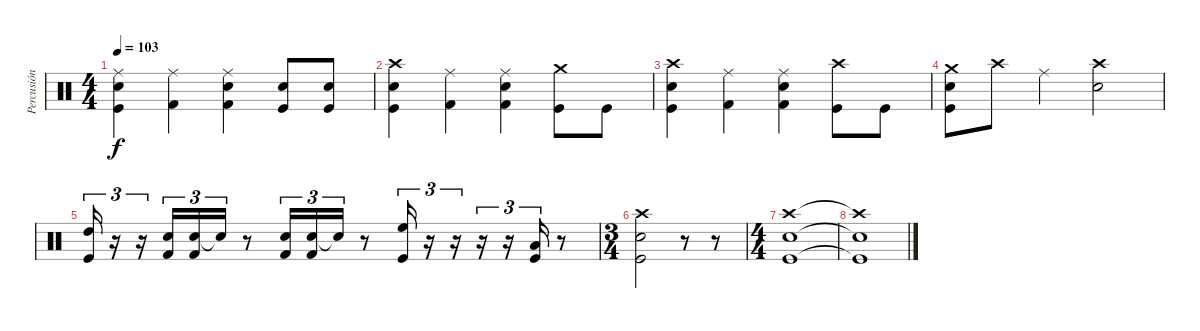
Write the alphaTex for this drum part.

\track ("Percusión" "Percusión") {instrument percussion}
\staff {score}
\articulation defaults
\ts (4 4)
\tempo 103
\clef neutral
\ks c
("Ride (middle)" "Kick (hit)" "Snare (hit) 2").4{dy f} ("Ride (middle)" "Kick (hit) 2").4 ("Ride (middle)" "Snare (hit) 2" "Kick (hit) 2").4 ("Snare (hit) 2" "Kick (hit)").8 ("Snare (hit) 2" "Kick (hit)").8 |
("Crash high (hit)" "Kick (hit)" "Snare (hit) 2").4 ("Ride (middle)" "Kick (hit) 2").4 ("Ride (middle)" "Snare (hit) 2" "Kick (hit) 2").4 ("Crash medium (hit)" "Kick (hit)").8 "Kick (hit)".8 |
("Crash high (hit)" "Snare (hit) 2" "Kick (hit)").4 ("Ride (middle)" "Kick (hit) 2").4 ("Ride (middle)" "Snare (hit) 2" "Kick (hit) 2").4 ("Crash high (hit)" "Kick (hit)").8 "Kick (hit)".8 |
("Crash medium (hit)" "Kick (hit)" "Snare (hit) 2").8 "Crash high (hit)".8 "Ride (middle)".4 ("Crash high (hit)" "Snare (hit) 2").2 |
("High Tom (hit)" "Kick (hit)").16{tu (3 2)} r.16{tu (3 2)} r.16{tu (3 2)} ("Snare (hit) 2" "Kick (hit) 2").16{tu (3 2)} ("Snare (hit) 2" "Kick (hit) 2").16{tu (3 2)} "Snare (hit) 2"{t}.16{tu (3 2)} r.8 ("Snare (hit) 2" "Kick (hit) 2").16{tu (3 2)} ("Snare (hit) 2" "Kick (hit) 2").16{tu (3 2)} "Snare (hit) 2"{t}.16{tu (3 2)} r.8 ("High Floor Tom (hit)" "Kick (hit)").16{tu (3 2)} r.16{tu (3 2)} r.16{tu (3 2)} r.16{tu (3 2)} r.16{tu (3 2)} ("Low Tom (hit)" "Kick (hit)").16{tu (3 2)} r.8 |
\ts (3 4)
("Snare (hit) 2" "Kick (hit)" "Crash high (hit)").2 r.8 r.8 |
\ts (4 4)
("Snare (hit) 2" "Kick (hit)" "Crash high (hit)").1 |
("Snare (hit) 2"{t} "Kick (hit)"{t} "Crash high (hit)"{t}).1
